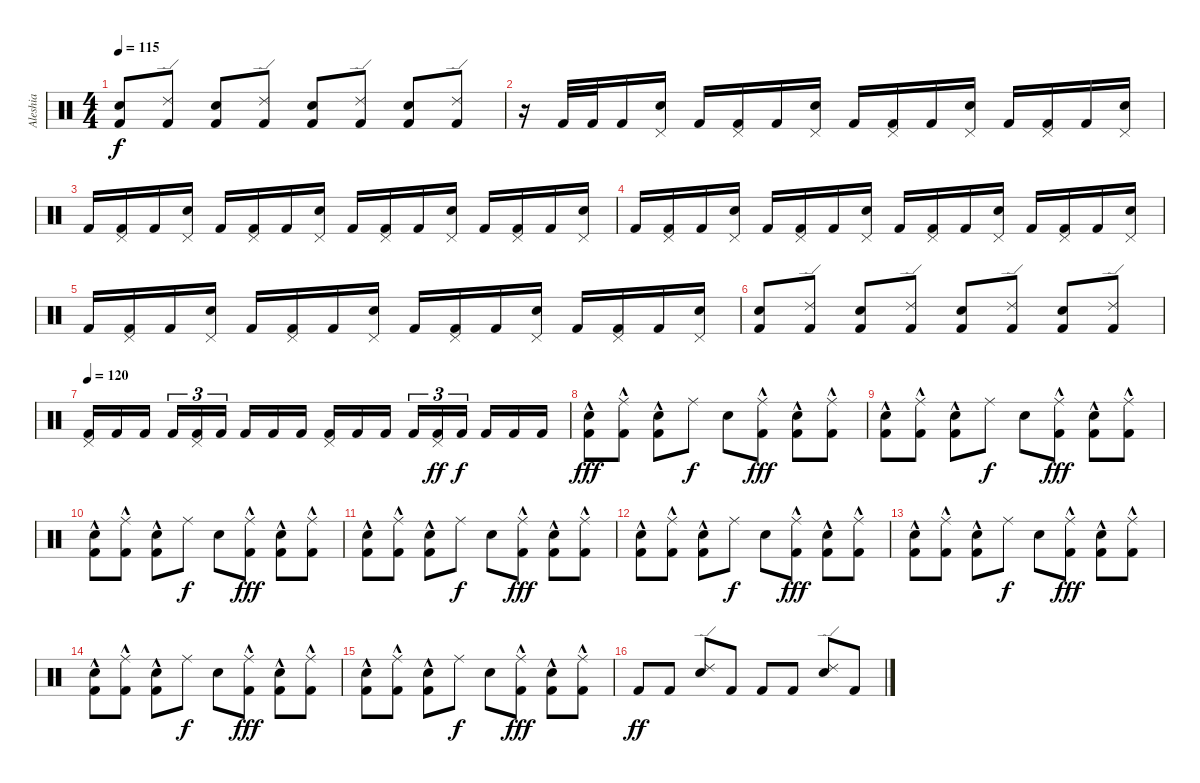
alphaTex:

\track ("Aleshia" "Aleshia") {instrument percussion}
\staff {score}
\articulation defaults
\ts (4 4)
\tempo 115
\clef neutral
\ks c
("Snare (hit) 2" "Kick (hit) 2").8{dy f} ("Ride (edge) 2" "Kick (hit) 2").8 ("Snare (hit) 2" "Kick (hit) 2").8 ("Ride (edge) 2" "Kick (hit) 2").8 ("Snare (hit) 2" "Kick (hit) 2").8 ("Ride (edge) 2" "Kick (hit) 2").8 ("Snare (hit) 2" "Kick (hit) 2").8 ("Ride (edge) 2" "Kick (hit) 2").8 |
r.16 "Kick (hit) 2".32 "Kick (hit) 2".32 "Kick (hit) 2".16 ("Pedal Hi-Hat (hit)" "Snare (hit) 2").16 "Kick (hit) 2".16 ("Pedal Hi-Hat (hit)" "Kick (hit) 2").16 "Kick (hit) 2".16 ("Pedal Hi-Hat (hit)" "Snare (hit) 2").16 "Kick (hit) 2".16 ("Pedal Hi-Hat (hit)" "Kick (hit) 2").16 "Kick (hit) 2".16 ("Pedal Hi-Hat (hit)" "Snare (hit) 2").16 "Kick (hit) 2".16 ("Pedal Hi-Hat (hit)" "Kick (hit) 2").16 "Kick (hit) 2".16 ("Pedal Hi-Hat (hit)" "Snare (hit) 2").16 |
"Kick (hit) 2".16 ("Pedal Hi-Hat (hit)" "Kick (hit) 2").16 "Kick (hit) 2".16 ("Pedal Hi-Hat (hit)" "Snare (hit) 2").16 "Kick (hit) 2".16 ("Pedal Hi-Hat (hit)" "Kick (hit) 2").16 "Kick (hit) 2".16 ("Pedal Hi-Hat (hit)" "Snare (hit) 2").16 "Kick (hit) 2".16 ("Pedal Hi-Hat (hit)" "Kick (hit) 2").16 "Kick (hit) 2".16 ("Pedal Hi-Hat (hit)" "Snare (hit) 2").16 "Kick (hit) 2".16 ("Pedal Hi-Hat (hit)" "Kick (hit) 2").16 "Kick (hit) 2".16 ("Pedal Hi-Hat (hit)" "Snare (hit) 2").16 |
"Kick (hit) 2".16 ("Pedal Hi-Hat (hit)" "Kick (hit) 2").16 "Kick (hit) 2".16 ("Pedal Hi-Hat (hit)" "Snare (hit) 2").16 "Kick (hit) 2".16 ("Pedal Hi-Hat (hit)" "Kick (hit) 2").16 "Kick (hit) 2".16 ("Pedal Hi-Hat (hit)" "Snare (hit) 2").16 "Kick (hit) 2".16 ("Pedal Hi-Hat (hit)" "Kick (hit) 2").16 "Kick (hit) 2".16 ("Pedal Hi-Hat (hit)" "Snare (hit) 2").16 "Kick (hit) 2".16 ("Pedal Hi-Hat (hit)" "Kick (hit) 2").16 "Kick (hit) 2".16 ("Pedal Hi-Hat (hit)" "Snare (hit) 2").16 |
"Kick (hit) 2".16 ("Pedal Hi-Hat (hit)" "Kick (hit) 2").16 "Kick (hit) 2".16 ("Pedal Hi-Hat (hit)" "Snare (hit) 2").16 "Kick (hit) 2".16 ("Pedal Hi-Hat (hit)" "Kick (hit) 2").16 "Kick (hit) 2".16 ("Pedal Hi-Hat (hit)" "Snare (hit) 2").16 "Kick (hit) 2".16 ("Pedal Hi-Hat (hit)" "Kick (hit) 2").16 "Kick (hit) 2".16 ("Pedal Hi-Hat (hit)" "Snare (hit) 2").16 "Kick (hit) 2".16 ("Pedal Hi-Hat (hit)" "Kick (hit) 2").16 "Kick (hit) 2".16 ("Pedal Hi-Hat (hit)" "Snare (hit) 2").16 |
("Snare (hit) 2" "Kick (hit) 2").8 ("Ride (edge) 2" "Kick (hit) 2").8 ("Snare (hit) 2" "Kick (hit) 2").8 ("Ride (edge) 2" "Kick (hit) 2").8 ("Snare (hit) 2" "Kick (hit) 2").8 ("Ride (edge) 2" "Kick (hit) 2").8 ("Snare (hit) 2" "Kick (hit) 2").8 ("Ride (edge) 2" "Kick (hit) 2").8 |
\tempo 120
("Pedal Hi-Hat (hit)" "Kick (hit) 2").16 "Kick (hit) 2".16 "Kick (hit) 2".16{beam splitsecondary} "Kick (hit) 2".16{tu (3 2)} ("Pedal Hi-Hat (hit)" "Kick (hit) 2").16{tu (3 2)} "Kick (hit) 2".16{tu (3 2) beam splitsecondary} "Kick (hit) 2".16 "Kick (hit) 2".16 "Kick (hit) 2".16 ("Pedal Hi-Hat (hit)" "Kick (hit) 2").16 "Kick (hit) 2".16 "Kick (hit) 2".16{beam splitsecondary} "Kick (hit) 2".16{tu (3 2)} ("Pedal Hi-Hat (hit)" "Kick (hit) 2").16{tu (3 2) dy ff} "Kick (hit) 2".16{tu (3 2) dy f beam splitsecondary} "Kick (hit) 2".16 "Kick (hit) 2".16 "Kick (hit) 2".16 |
("Snare (hit) 2" "Kick (hit) 2"{hac}).8{dy fff} ("Ride (middle)" "Kick (hit) 2"{hac}).8 ("Snare (hit) 2" "Kick (hit) 2"{hac}).8 "Ride (middle)".8{dy f} "Snare (hit) 2".8 ("Ride (middle)" "Kick (hit) 2"{hac}).8{dy fff} ("Snare (hit) 2" "Kick (hit) 2"{hac}).8 ("Ride (middle)" "Kick (hit) 2"{hac}).8 |
("Snare (hit) 2" "Kick (hit) 2"{hac}).8 ("Ride (middle)" "Kick (hit) 2"{hac}).8 ("Snare (hit) 2" "Kick (hit) 2"{hac}).8 "Ride (middle)".8{dy f} "Snare (hit) 2".8 ("Ride (middle)" "Kick (hit) 2"{hac}).8{dy fff} ("Snare (hit) 2" "Kick (hit) 2"{hac}).8 ("Ride (middle)" "Kick (hit) 2"{hac}).8 |
("Snare (hit) 2" "Kick (hit) 2"{hac}).8 ("Ride (middle)" "Kick (hit) 2"{hac}).8 ("Snare (hit) 2" "Kick (hit) 2"{hac}).8 "Ride (middle)".8{dy f} "Snare (hit) 2".8 ("Ride (middle)" "Kick (hit) 2"{hac}).8{dy fff} ("Snare (hit) 2" "Kick (hit) 2"{hac}).8 ("Ride (middle)" "Kick (hit) 2"{hac}).8 |
("Snare (hit) 2" "Kick (hit) 2"{hac}).8 ("Ride (middle)" "Kick (hit) 2"{hac}).8 ("Snare (hit) 2" "Kick (hit) 2"{hac}).8 "Ride (middle)".8{dy f} "Snare (hit) 2".8 ("Ride (middle)" "Kick (hit) 2"{hac}).8{dy fff} ("Snare (hit) 2" "Kick (hit) 2"{hac}).8 ("Ride (middle)" "Kick (hit) 2"{hac}).8 |
("Snare (hit) 2" "Kick (hit) 2"{hac}).8 ("Ride (middle)" "Kick (hit) 2"{hac}).8 ("Snare (hit) 2" "Kick (hit) 2"{hac}).8 "Ride (middle)".8{dy f} "Snare (hit) 2".8 ("Ride (middle)" "Kick (hit) 2"{hac}).8{dy fff} ("Snare (hit) 2" "Kick (hit) 2"{hac}).8 ("Ride (middle)" "Kick (hit) 2"{hac}).8 |
("Snare (hit) 2" "Kick (hit) 2"{hac}).8 ("Ride (middle)" "Kick (hit) 2"{hac}).8 ("Snare (hit) 2" "Kick (hit) 2"{hac}).8 "Ride (middle)".8{dy f} "Snare (hit) 2".8 ("Ride (middle)" "Kick (hit) 2"{hac}).8{dy fff} ("Snare (hit) 2" "Kick (hit) 2"{hac}).8 ("Ride (middle)" "Kick (hit) 2"{hac}).8 |
("Snare (hit) 2" "Kick (hit) 2"{hac}).8 ("Ride (middle)" "Kick (hit) 2"{hac}).8 ("Snare (hit) 2" "Kick (hit) 2"{hac}).8 "Ride (middle)".8{dy f} "Snare (hit) 2".8 ("Ride (middle)" "Kick (hit) 2"{hac}).8{dy fff} ("Snare (hit) 2" "Kick (hit) 2"{hac}).8 ("Ride (middle)" "Kick (hit) 2"{hac}).8 |
("Snare (hit) 2" "Kick (hit) 2"{hac}).8 ("Ride (middle)" "Kick (hit) 2"{hac}).8 ("Snare (hit) 2" "Kick (hit) 2"{hac}).8 "Ride (middle)".8{dy f} "Snare (hit) 2".8 ("Ride (middle)" "Kick (hit) 2"{hac}).8{dy fff} ("Snare (hit) 2" "Kick (hit) 2"{hac}).8 ("Ride (middle)" "Kick (hit) 2"{hac}).8 |
"Kick (hit) 2".8{dy ff} "Kick (hit) 2".8 ("Ride (edge) 2" "Snare (hit) 2").8 "Kick (hit) 2".8 "Kick (hit) 2".8 "Kick (hit) 2".8 ("Ride (edge) 2" "Snare (hit) 2").8 "Kick (hit) 2".8
